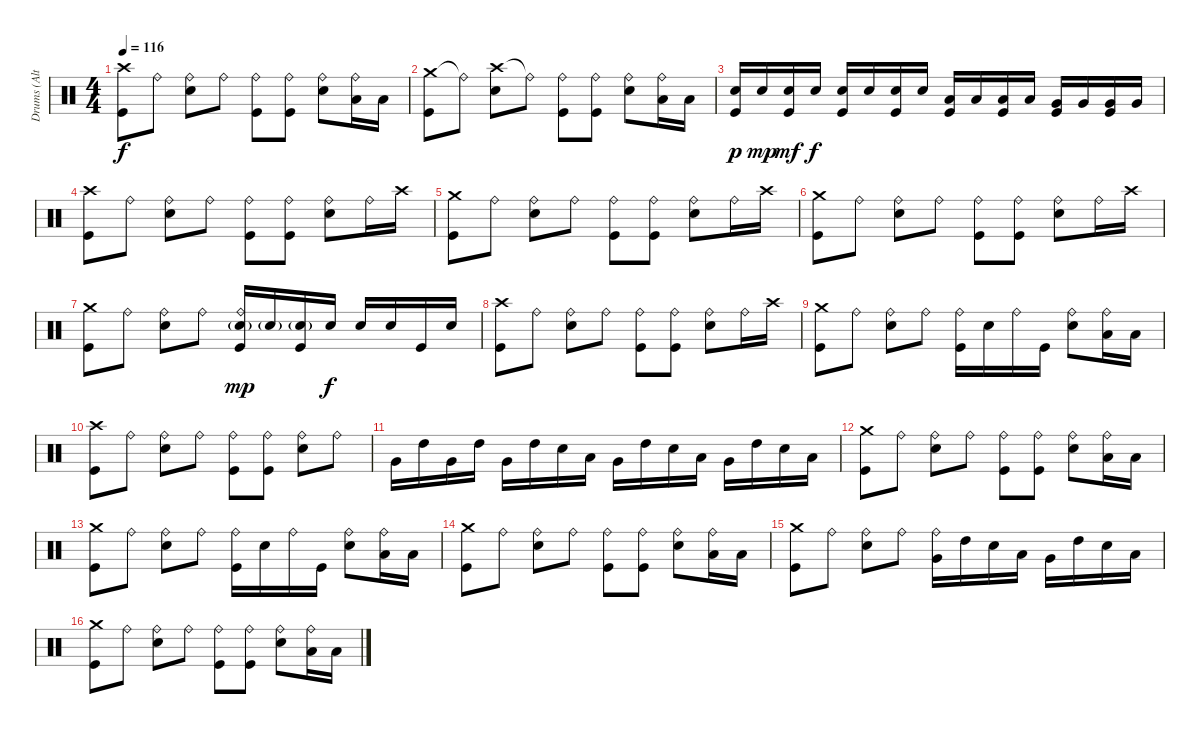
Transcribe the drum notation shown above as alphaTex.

\track ("Drums (Alternate - NOT ON MASTER)" "Drums (Alt") {mute instrument percussion}
\staff {score}
\articulation defaults
\ts (4 4)
\tempo 116
\clef neutral
\ks c
("Crash high (hit)" "Kick (hit)").8{dy f} "Ride (bell)".8 ("Ride (bell)" "Snare (hit) 2").8 "Ride (bell)".8 ("Ride (bell)" "Kick (hit)").8 ("Ride (bell)" "Kick (hit)").8 ("Ride (bell)" "Snare (hit) 2").8 ("Ride (bell)" "Low Tom (hit)").16 "Low Tom (hit)".16 |
("Crash medium (hit)" "Kick (hit)").8 "Ride (bell)"{t}.8 ("Crash high (hit)" "Snare (hit) 2").8 "Ride (bell)"{t}.8 ("Ride (bell)" "Kick (hit)").8 ("Ride (bell)" "Kick (hit)").8 ("Ride (bell)" "Snare (hit) 2").8 ("Ride (bell)" "Low Tom (hit)").16 "Low Tom (hit)".16 |
("Snare (hit) 2" "Kick (hit)").16{dy p} "Snare (hit) 2".16{dy mp} ("Snare (hit) 2" "Kick (hit)").16{dy mf} "Snare (hit) 2".16{dy f} ("Snare (hit) 2" "Kick (hit)").16 "Snare (hit) 2".16 ("Snare (hit) 2" "Kick (hit)").16 "Snare (hit) 2".16 ("Low Tom (hit)" "Kick (hit)").16 "Low Tom (hit)".16 ("Low Tom (hit)" "Kick (hit)").16 "Low Tom (hit)".16 ("Very Low Tom (hit)" "Kick (hit)").16 "Very Low Tom (hit)".16 ("Very Low Tom (hit)" "Kick (hit)").16 "Very Low Tom (hit)".16 |
("Crash high (hit)" "Kick (hit)").8 "Ride (bell)".8 ("Ride (bell)" "Snare (hit) 2").8 "Ride (bell)".8 ("Ride (bell)" "Kick (hit)").8 ("Ride (bell)" "Kick (hit)").8 ("Ride (bell)" "Snare (hit) 2").8 "Ride (bell)".16 "Crash high (hit)".16 |
("Crash medium (hit)" "Kick (hit)").8 "Ride (bell)".8 ("Ride (bell)" "Snare (hit) 2").8 "Ride (bell)".8 ("Ride (bell)" "Kick (hit)").8 ("Ride (bell)" "Kick (hit)").8 ("Ride (bell)" "Snare (hit) 2").8 "Ride (bell)".16 "Crash high (hit)".16 |
("Crash medium (hit)" "Kick (hit)").8 "Ride (bell)".8 ("Ride (bell)" "Snare (hit) 2").8 "Ride (bell)".8 ("Ride (bell)" "Kick (hit)").8 ("Ride (bell)" "Kick (hit)").8 ("Ride (bell)" "Snare (hit) 2").8 "Ride (bell)".16 "Crash high (hit)".16 |
("Crash medium (hit)" "Kick (hit)").8 "Ride (bell)".8 ("Ride (bell)" "Snare (hit) 2").8 "Ride (bell)".8 ("Ride (bell)" "Snare (hit) 2"{g} "Kick (hit)").16{dy mp} "Snare (hit) 2"{g}.16 ("Snare (hit) 2"{g} "Kick (hit)").16 "Snare (hit) 2".16{dy f} "Snare (hit) 2".16 "Snare (hit) 2".16 "Kick (hit)".16 "Snare (hit) 2".16 |
("Crash high (hit)" "Kick (hit)").8 "Ride (bell)".8 ("Ride (bell)" "Snare (hit) 2").8 "Ride (bell)".8 ("Ride (bell)" "Kick (hit)").8 ("Ride (bell)" "Kick (hit)").8 ("Ride (bell)" "Snare (hit) 2").8 "Ride (bell)".16 "Crash high (hit)".16 |
("Crash medium (hit)" "Kick (hit)").8 "Ride (bell)".8 ("Ride (bell)" "Snare (hit) 2").8 "Ride (bell)".8 ("Ride (bell)" "Kick (hit)").16 "Snare (hit) 2".16 "Ride (bell)".16 "Kick (hit)".16 ("Ride (bell)" "Snare (hit) 2").8 ("Ride (bell)" "Low Tom (hit)").16 "Low Tom (hit)".16 |
("Crash high (hit)" "Kick (hit)").8 "Ride (bell)".8 ("Ride (bell)" "Snare (hit) 2").8 "Ride (bell)".8 ("Ride (bell)" "Kick (hit)").8 ("Ride (bell)" "Kick (hit)").8 ("Ride (bell)" "Snare (hit) 2").8 "Ride (bell)".8 |
"Very Low Tom (hit)".16 "High Tom (hit)".16 "Very Low Tom (hit)".16 "High Tom (hit)".16 "Very Low Tom (hit)".16 "High Tom (hit)".16 "Snare (hit) 2".16 "Low Tom (hit)".16 "Very Low Tom (hit)".16 "High Tom (hit)".16 "Snare (hit) 2".16 "Low Tom (hit)".16 "Very Low Tom (hit)".16 "High Tom (hit)".16 "Snare (hit) 2".16 "Low Tom (hit)".16 |
("Crash medium (hit)" "Kick (hit)").8 "Ride (bell)".8 ("Ride (bell)" "Snare (hit) 2").8 "Ride (bell)".8 ("Ride (bell)" "Kick (hit)").8 ("Ride (bell)" "Kick (hit)").8 ("Ride (bell)" "Snare (hit) 2").8 ("Ride (bell)" "Low Tom (hit)").16 "Low Tom (hit)".16 |
("Crash medium (hit)" "Kick (hit)").8 "Ride (bell)".8 ("Ride (bell)" "Snare (hit) 2").8 "Ride (bell)".8 ("Ride (bell)" "Kick (hit)").16 "Snare (hit) 2".16 "Ride (bell)".16 "Kick (hit)".16 ("Ride (bell)" "Snare (hit) 2").8 ("Ride (bell)" "Low Tom (hit)").16 "Low Tom (hit)".16 |
("Crash medium (hit)" "Kick (hit)").8 "Ride (bell)".8 ("Ride (bell)" "Snare (hit) 2").8 "Ride (bell)".8 ("Ride (bell)" "Kick (hit)").8 ("Ride (bell)" "Kick (hit)").8 ("Ride (bell)" "Snare (hit) 2").8 ("Ride (bell)" "Low Tom (hit)").16 "Low Tom (hit)".16 |
("Crash medium (hit)" "Kick (hit)").8 "Ride (bell)".8 ("Ride (bell)" "Snare (hit) 2").8 "Ride (bell)".8 ("Ride (bell)" "Very Low Tom (hit)").16 "High Tom (hit)".16 "Snare (hit) 2".16 "Low Tom (hit)".16 "Very Low Tom (hit)".16 "High Tom (hit)".16 "Snare (hit) 2".16 "Low Tom (hit)".16 |
("Crash medium (hit)" "Kick (hit)").8 "Ride (bell)".8 ("Ride (bell)" "Snare (hit) 2").8 "Ride (bell)".8 ("Ride (bell)" "Kick (hit)").8 ("Ride (bell)" "Kick (hit)").8 ("Ride (bell)" "Snare (hit) 2").8 ("Ride (bell)" "Low Tom (hit)").16 "Low Tom (hit)".16
